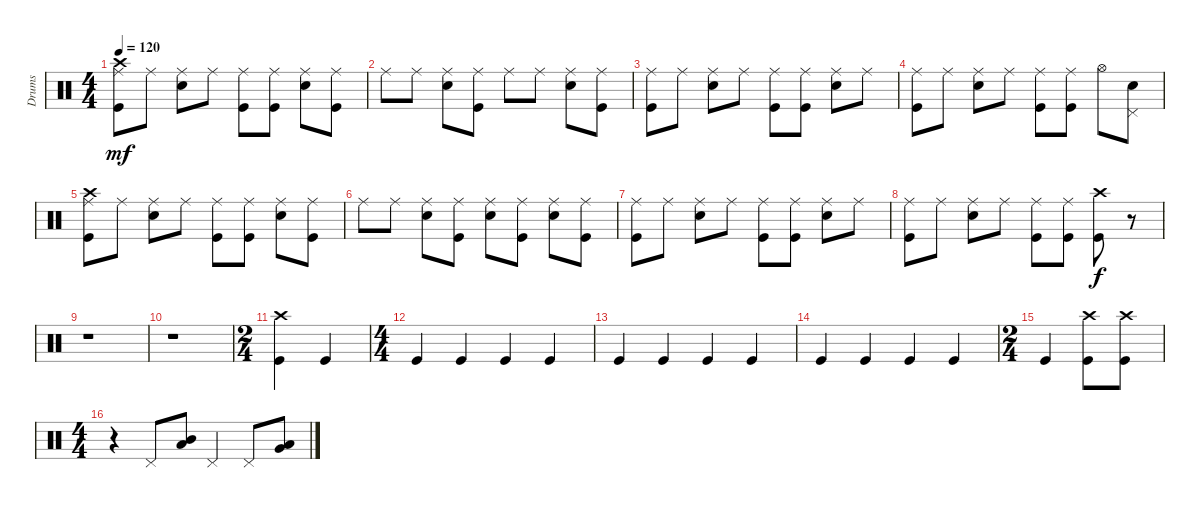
\track ("Drums" "Drums") {instrument percussion}
\staff {score}
\articulation defaults
\ts (4 4)
\tempo 120
\clef neutral
\ks c
("Crash high (hit)" "Ride (middle)" "Kick (hit)").8{dy mf} "Ride (middle)".8 ("Ride (middle)" "Electric Snare (hit)").8 "Ride (middle)".8 ("Ride (middle)" "Kick (hit)").8 ("Ride (middle)" "Kick (hit)").8 ("Ride (middle)" "Electric Snare (hit)").8 ("Ride (middle)" "Kick (hit)").8 |
"Ride (middle)".8 "Ride (middle)".8 ("Ride (middle)" "Electric Snare (hit)").8 ("Ride (middle)" "Kick (hit)").8 "Ride (middle)".8 "Ride (middle)".8 ("Ride (middle)" "Electric Snare (hit)").8 ("Ride (middle)" "Kick (hit)").8 |
("Ride (middle)" "Kick (hit)").8 "Ride (middle)".8 ("Ride (middle)" "Electric Snare (hit)").8 "Ride (middle)".8 ("Ride (middle)" "Kick (hit)").8 ("Ride (middle)" "Kick (hit)").8 ("Ride (middle)" "Electric Snare (hit)").8 "Ride (middle)".8 |
("Ride (middle)" "Kick (hit)").8 "Ride (middle)".8 ("Ride (middle)" "Electric Snare (hit)").8 "Ride (middle)".8 ("Ride (middle)" "Kick (hit)").8 ("Ride (middle)" "Kick (hit)").8 "Hi-Hat (open)".8 ("Pedal Hi-Hat (hit)" "Electric Snare (hit)").8 |
("Crash high (hit)" "Ride (middle)" "Kick (hit)").8 "Ride (middle)".8 ("Ride (middle)" "Electric Snare (hit)").8 "Ride (middle)".8 ("Ride (middle)" "Kick (hit)").8 ("Ride (middle)" "Kick (hit)").8 ("Ride (middle)" "Electric Snare (hit)").8 ("Ride (middle)" "Kick (hit)").8 |
"Ride (middle)".8 "Ride (middle)".8 ("Ride (middle)" "Electric Snare (hit)").8 ("Ride (middle)" "Kick (hit)").8 ("Ride (middle)" "Electric Snare (hit)").8 ("Ride (middle)" "Kick (hit)").8 ("Ride (middle)" "Electric Snare (hit)").8 ("Ride (middle)" "Kick (hit)").8 |
("Ride (middle)" "Kick (hit)").8 "Ride (middle)".8 ("Ride (middle)" "Electric Snare (hit)").8 "Ride (middle)".8 ("Ride (middle)" "Kick (hit)").8 ("Ride (middle)" "Kick (hit)").8 ("Ride (middle)" "Electric Snare (hit)").8 "Ride (middle)".8 |
("Ride (middle)" "Kick (hit)").8 "Ride (middle)".8 ("Ride (middle)" "Electric Snare (hit)").8 "Ride (middle)".8 ("Ride (middle)" "Kick (hit)").8 ("Ride (middle)" "Kick (hit)").8 ("Crash high (hit)" "Kick (hit)").8{dy f} r.8 |
r.1 |
r.1 |
\ts (2 4)
("Crash high (hit)" "Kick (hit)").4 "Kick (hit)".4 |
\ts (4 4)
"Kick (hit)".4 "Kick (hit)".4 "Kick (hit)".4 "Kick (hit)".4 |
"Kick (hit)".4 "Kick (hit)".4 "Kick (hit)".4 "Kick (hit)".4 |
"Kick (hit)".4 "Kick (hit)".4 "Kick (hit)".4 "Kick (hit)".4 |
\ts (2 4)
"Kick (hit)".4 ("Crash high (hit)" "Kick (hit)").8 ("Crash high (hit)" "Kick (hit)").8 |
\ts (4 4)
r.4 "Pedal Hi-Hat (hit)".8 ("Mid Tom (hit)" "Low Tom (hit)").8 "Pedal Hi-Hat (hit)".4 "Pedal Hi-Hat (hit)".8 ("Low Tom (hit)" "Very Low Tom (hit)").8
